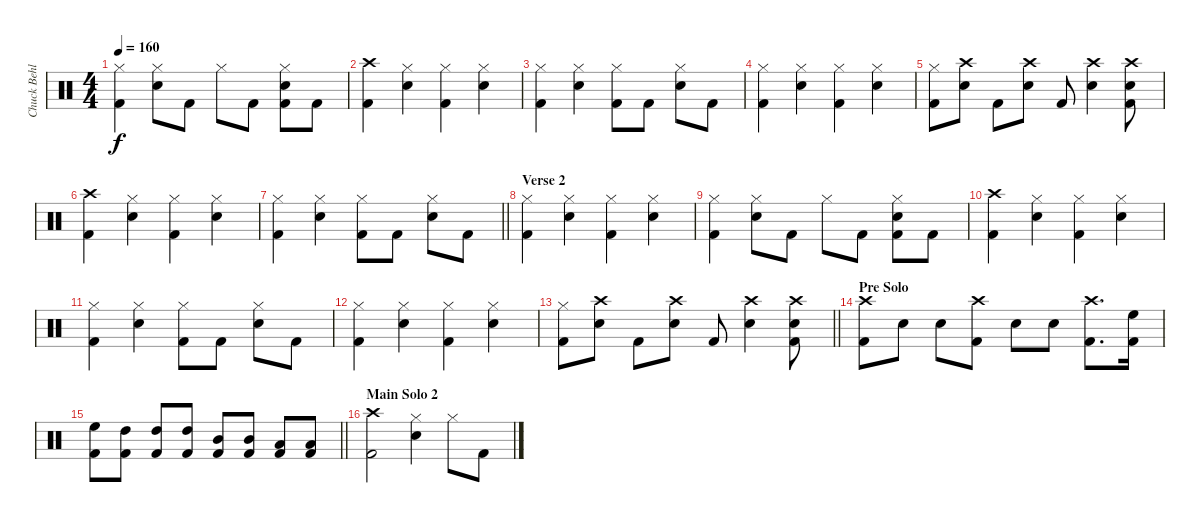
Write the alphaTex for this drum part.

\track ("Chuck Behler" "Chuck Behl") {instrument percussion}
\staff {score}
\articulation defaults
\ts (4 4)
\tempo 160
\clef neutral
\ks c
("Hi-Hat (closed)" "Kick (hit) 2").4{dy f} ("Hi-Hat (closed)" "Snare (hit) 2").8 "Kick (hit) 2".8 "Hi-Hat (closed)".8 "Kick (hit) 2".8 ("Hi-Hat (closed)" "Snare (hit) 2" "Kick (hit) 2").8 "Kick (hit) 2".8 |
("Crash high (hit)" "Kick (hit) 2").4 ("Hi-Hat (closed)" "Snare (hit) 2").4 ("Hi-Hat (closed)" "Kick (hit) 2").4 ("Hi-Hat (closed)" "Snare (hit) 2").4 |
("Hi-Hat (closed)" "Kick (hit) 2").4 ("Hi-Hat (closed)" "Snare (hit) 2").4 ("Hi-Hat (closed)" "Kick (hit) 2").8 "Kick (hit) 2".8 ("Hi-Hat (closed)" "Snare (hit) 2").8 "Kick (hit) 2".8 |
("Hi-Hat (closed)" "Kick (hit) 2").4 ("Hi-Hat (closed)" "Snare (hit) 2").4 ("Hi-Hat (closed)" "Kick (hit) 2").4 ("Hi-Hat (closed)" "Snare (hit) 2").4 |
("Hi-Hat (closed)" "Kick (hit) 2").8 ("Crash high (hit)" "Snare (hit) 2").8 "Kick (hit) 2".8 ("Crash high (hit)" "Snare (hit) 2").8 "Kick (hit) 2".8 ("Crash high (hit)" "Snare (hit) 2").4 ("Crash high (hit)" "Snare (hit) 2" "Kick (hit) 2").8 |
("Crash high (hit)" "Kick (hit) 2").4 ("Hi-Hat (closed)" "Snare (hit) 2").4 ("Hi-Hat (closed)" "Kick (hit) 2").4 ("Hi-Hat (closed)" "Snare (hit) 2").4 |
\barLineRight lightlight
("Hi-Hat (closed)" "Kick (hit) 2").4 ("Hi-Hat (closed)" "Snare (hit) 2").4 ("Hi-Hat (closed)" "Kick (hit) 2").8 "Kick (hit) 2".8 ("Hi-Hat (closed)" "Snare (hit) 2").8 "Kick (hit) 2".8 |
\section ("" "Verse 2")
("Hi-Hat (closed)" "Kick (hit) 2").4 ("Hi-Hat (closed)" "Snare (hit) 2").4 ("Hi-Hat (closed)" "Kick (hit) 2").4 ("Hi-Hat (closed)" "Snare (hit) 2").4 |
("Hi-Hat (closed)" "Kick (hit) 2").4 ("Hi-Hat (closed)" "Snare (hit) 2").8 "Kick (hit) 2".8 "Hi-Hat (closed)".8 "Kick (hit) 2".8 ("Hi-Hat (closed)" "Snare (hit) 2" "Kick (hit) 2").8 "Kick (hit) 2".8 |
("Crash high (hit)" "Kick (hit) 2").4 ("Hi-Hat (closed)" "Snare (hit) 2").4 ("Hi-Hat (closed)" "Kick (hit) 2").4 ("Hi-Hat (closed)" "Snare (hit) 2").4 |
("Hi-Hat (closed)" "Kick (hit) 2").4 ("Hi-Hat (closed)" "Snare (hit) 2").4 ("Hi-Hat (closed)" "Kick (hit) 2").8 "Kick (hit) 2".8 ("Hi-Hat (closed)" "Snare (hit) 2").8 "Kick (hit) 2".8 |
("Hi-Hat (closed)" "Kick (hit) 2").4 ("Hi-Hat (closed)" "Snare (hit) 2").4 ("Hi-Hat (closed)" "Kick (hit) 2").4 ("Hi-Hat (closed)" "Snare (hit) 2").4 |
\barLineRight lightlight
("Hi-Hat (closed)" "Kick (hit) 2").8 ("Crash high (hit)" "Snare (hit) 2").8 "Kick (hit) 2".8 ("Crash high (hit)" "Snare (hit) 2").8 "Kick (hit) 2".8 ("Crash high (hit)" "Snare (hit) 2").4 ("Crash high (hit)" "Snare (hit) 2" "Kick (hit) 2").8 |
\section ("" "Pre Solo")
("Crash high (hit)" "Kick (hit) 2").8 "Snare (hit) 2".8 "Snare (hit) 2".8 ("Crash high (hit)" "Kick (hit) 2").8 "Snare (hit) 2".8 "Snare (hit) 2".8 ("Crash high (hit)" "Kick (hit) 2").8{d} ("High Floor Tom (hit)" "Kick (hit) 2").16 |
\barLineRight lightlight
("High Floor Tom (hit)" "Kick (hit) 2").8 ("High Tom (hit)" "Kick (hit) 2").8 ("High Tom (hit)" "Kick (hit) 2").8 ("High Tom (hit)" "Kick (hit) 2").8 ("Mid Tom (hit)" "Kick (hit) 2").8 ("Mid Tom (hit)" "Kick (hit) 2").8 ("Low Tom (hit)" "Kick (hit) 2").8 ("Low Tom (hit)" "Kick (hit) 2").8 |
\section ("" "Main Solo 2")
("Crash high (hit)" "Kick (hit) 2").2 ("Hi-Hat (closed)" "Snare (hit) 2").4 "Hi-Hat (closed)".8 "Kick (hit) 2".8
